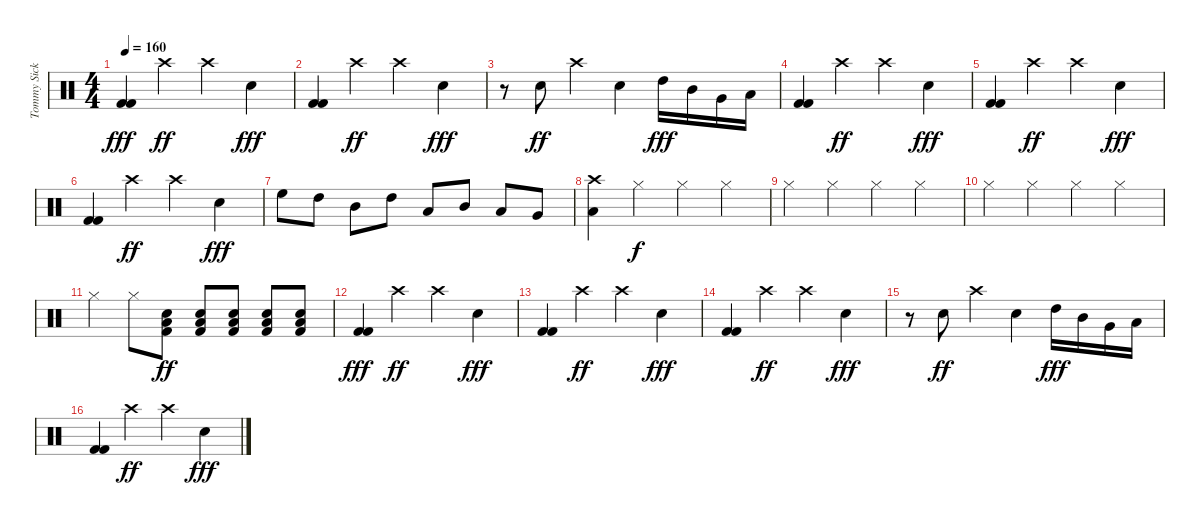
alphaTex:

\track ("Tommy Sickles" "Tommy Sick") {instrument percussion}
\staff {score}
\articulation defaults
\ts (4 4)
\tempo 160
\clef neutral
\ks c
("Kick (hit) 2" "Kick (hit) 2").4{dy fff} "Crash high (hit)".4{dy ff} "Crash high (hit)".4 "Electric Snare (hit)".4{dy fff} |
("Kick (hit) 2" "Kick (hit) 2").4 "Crash high (hit)".4{dy ff} "Crash high (hit)".4 "Electric Snare (hit)".4{dy fff} |
r.8 "Electric Snare (hit)".8{dy ff} "Crash high (hit)".4 "Electric Snare (hit)".4 "High Tom (hit)".16{dy fff} "Mid Tom (hit)".16 "Very Low Tom (hit)".16 "Low Floor Tom (hit)".16 |
("Kick (hit) 2" "Kick (hit) 2").4 "Crash high (hit)".4{dy ff} "Crash high (hit)".4 "Electric Snare (hit)".4{dy fff} |
("Kick (hit) 2" "Kick (hit) 2").4 "Crash high (hit)".4{dy ff} "Crash high (hit)".4 "Electric Snare (hit)".4{dy fff} |
("Kick (hit) 2" "Kick (hit) 2").4 "Crash high (hit)".4{dy ff} "Crash high (hit)".4 "Electric Snare (hit)".4{dy fff} |
"High Floor Tom (hit)".8 "High Tom (hit)".8 "Mid Tom (hit)".8 "High Tom (hit)".8 "Low Tom (hit)".8 "Mid Tom (hit)".8 "Low Tom (hit)".8 "Very Low Tom (hit)".8 |
("Crash high (hit)" "Low Floor Tom (hit)").4 "Hi-Hat (closed)".4{dy f} "Hi-Hat (closed)".4 "Hi-Hat (closed)".4 |
"Hi-Hat (closed)".4 "Hi-Hat (closed)".4 "Hi-Hat (closed)".4 "Hi-Hat (closed)".4 |
"Hi-Hat (closed)".4 "Hi-Hat (closed)".4 "Hi-Hat (closed)".4 "Hi-Hat (closed)".4 |
"Hi-Hat (closed)".4 "Hi-Hat (closed)".8 ("Low Floor Tom (hit)" "Kick (hit) 2" "Electric Snare (hit)").8{dy ff} ("Low Floor Tom (hit)" "Kick (hit) 2" "Electric Snare (hit)").8 ("Low Floor Tom (hit)" "Kick (hit) 2" "Electric Snare (hit)").8 ("Low Floor Tom (hit)" "Kick (hit) 2" "Electric Snare (hit)").8 ("Low Floor Tom (hit)" "Kick (hit) 2" "Electric Snare (hit)").8 |
("Kick (hit) 2" "Kick (hit) 2").4{dy fff} "Crash high (hit)".4{dy ff} "Crash high (hit)".4 "Electric Snare (hit)".4{dy fff} |
("Kick (hit) 2" "Kick (hit) 2").4 "Crash high (hit)".4{dy ff} "Crash high (hit)".4 "Electric Snare (hit)".4{dy fff} |
("Kick (hit) 2" "Kick (hit) 2").4 "Crash high (hit)".4{dy ff} "Crash high (hit)".4 "Electric Snare (hit)".4{dy fff} |
r.8 "Electric Snare (hit)".8{dy ff} "Crash high (hit)".4 "Electric Snare (hit)".4 "High Tom (hit)".16{dy fff} "Mid Tom (hit)".16 "Very Low Tom (hit)".16 "Low Floor Tom (hit)".16 |
("Kick (hit) 2" "Kick (hit) 2").4 "Crash high (hit)".4{dy ff} "Crash high (hit)".4 "Electric Snare (hit)".4{dy fff}
